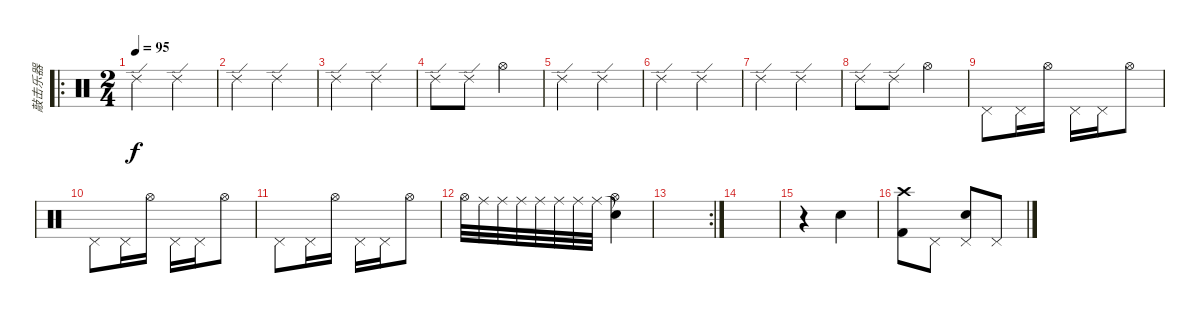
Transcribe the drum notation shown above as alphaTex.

\track ("敲击乐器" "敲击乐器") {instrument percussion}
\staff {score}
\articulation defaults
\ro
\ts (2 4)
\tempo 95
\clef neutral
\ks c "Ride (edge) 2".4{dy f} "Ride (edge) 2".4
|
"Ride (edge) 2".4 "Ride (edge) 2".4 |
"Ride (edge) 2".4 "Ride (edge) 2".4 |
"Ride (edge) 2".8 "Ride (edge) 2".8 "Hi-Hat (open)".4 |
"Ride (edge) 2".4 "Ride (edge) 2".4 |
"Ride (edge) 2".4 "Ride (edge) 2".4 |
"Ride (edge) 2".4 "Ride (edge) 2".4 |
"Ride (edge) 2".8 "Ride (edge) 2".8 "Hi-Hat (open)".4 |
"Pedal Hi-Hat (hit)".8 "Pedal Hi-Hat (hit)".16 "Hi-Hat (open)".16 "Pedal Hi-Hat (hit)".16 "Pedal Hi-Hat (hit)".16 "Hi-Hat (open)".8 |
"Pedal Hi-Hat (hit)".8 "Pedal Hi-Hat (hit)".16 "Hi-Hat (open)".16 "Pedal Hi-Hat (hit)".16 "Pedal Hi-Hat (hit)".16 "Hi-Hat (open)".8 |
"Pedal Hi-Hat (hit)".8 "Pedal Hi-Hat (hit)".16 "Hi-Hat (open)".16 "Pedal Hi-Hat (hit)".16 "Pedal Hi-Hat (hit)".16 "Hi-Hat (open)".8 |
"Hi-Hat (open)".32 "Ride (middle)".32 "Ride (middle)".32 "Ride (middle)".32 "Ride (middle)".32 "Ride (middle)".32 "Ride (middle)".32 "Ride (middle)".32 ("Snare (hit)"{t} "Hi-Hat (open)").4 |
\rc 2
|
|
r.4 "Electric Snare (hit)".4 |
("Crash high (hit)" "Kick (hit) 2").8 "Pedal Hi-Hat (hit)".8 ("Pedal Hi-Hat (hit)" "Electric Snare (hit)").8 "Pedal Hi-Hat (hit)".8
